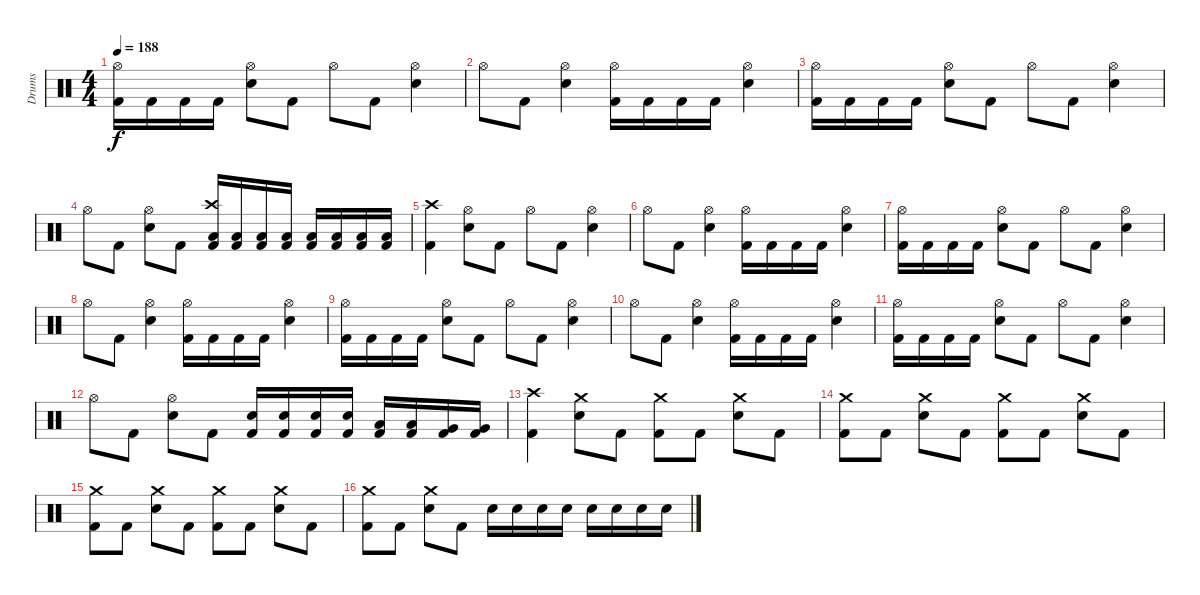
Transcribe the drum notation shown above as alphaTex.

\track ("Drums" "Drums") {instrument percussion}
\staff {score}
\articulation defaults
\ts (4 4)
\tempo 188
\clef neutral
\ks c
("Hi-Hat (open)" "Kick (hit) 2").16{dy f} "Kick (hit) 2".16 "Kick (hit) 2".16 "Kick (hit) 2".16 ("Hi-Hat (open)" "Electric Snare (hit)").8 "Kick (hit) 2".8 "Hi-Hat (open)".8 "Kick (hit) 2".8 ("Hi-Hat (open)" "Electric Snare (hit)").4 |
"Hi-Hat (open)".8 "Kick (hit) 2".8 ("Hi-Hat (open)" "Electric Snare (hit)").4 ("Hi-Hat (open)" "Kick (hit) 2").16 "Kick (hit) 2".16 "Kick (hit) 2".16 "Kick (hit) 2".16 ("Hi-Hat (open)" "Electric Snare (hit)").4 |
("Hi-Hat (open)" "Kick (hit) 2").16 "Kick (hit) 2".16 "Kick (hit) 2".16 "Kick (hit) 2".16 ("Hi-Hat (open)" "Electric Snare (hit)").8 "Kick (hit) 2".8 "Hi-Hat (open)".8 "Kick (hit) 2".8 ("Hi-Hat (open)" "Electric Snare (hit)").4 |
"Hi-Hat (open)".8 "Kick (hit) 2".8 ("Hi-Hat (open)" "Electric Snare (hit)").8 "Kick (hit) 2".8 ("Crash high (hit)" "Low Floor Tom (hit)" "Kick (hit) 2").16 ("Low Floor Tom (hit)" "Kick (hit) 2").16 ("Low Floor Tom (hit)" "Kick (hit) 2").16 ("Low Floor Tom (hit)" "Kick (hit) 2").16 ("Low Floor Tom (hit)" "Kick (hit) 2").16 ("Low Floor Tom (hit)" "Kick (hit) 2").16 ("Low Floor Tom (hit)" "Kick (hit) 2").16 ("Low Floor Tom (hit)" "Kick (hit) 2").16 |
("Crash high (hit)" "Kick (hit) 2").4 ("Hi-Hat (open)" "Electric Snare (hit)").8 "Kick (hit) 2".8 "Hi-Hat (open)".8 "Kick (hit) 2".8 ("Hi-Hat (open)" "Electric Snare (hit)").4 |
"Hi-Hat (open)".8 "Kick (hit) 2".8 ("Hi-Hat (open)" "Electric Snare (hit)").4 ("Hi-Hat (open)" "Kick (hit) 2").16 "Kick (hit) 2".16 "Kick (hit) 2".16 "Kick (hit) 2".16 ("Hi-Hat (open)" "Electric Snare (hit)").4 |
("Hi-Hat (open)" "Kick (hit) 2").16 "Kick (hit) 2".16 "Kick (hit) 2".16 "Kick (hit) 2".16 ("Hi-Hat (open)" "Electric Snare (hit)").8 "Kick (hit) 2".8 "Hi-Hat (open)".8 "Kick (hit) 2".8 ("Hi-Hat (open)" "Electric Snare (hit)").4 |
"Hi-Hat (open)".8 "Kick (hit) 2".8 ("Hi-Hat (open)" "Electric Snare (hit)").4 ("Hi-Hat (open)" "Kick (hit) 2").16 "Kick (hit) 2".16 "Kick (hit) 2".16 "Kick (hit) 2".16 ("Hi-Hat (open)" "Electric Snare (hit)").4 |
("Hi-Hat (open)" "Kick (hit) 2").16 "Kick (hit) 2".16 "Kick (hit) 2".16 "Kick (hit) 2".16 ("Hi-Hat (open)" "Electric Snare (hit)").8 "Kick (hit) 2".8 "Hi-Hat (open)".8 "Kick (hit) 2".8 ("Hi-Hat (open)" "Electric Snare (hit)").4 |
"Hi-Hat (open)".8 "Kick (hit) 2".8 ("Hi-Hat (open)" "Electric Snare (hit)").4 ("Hi-Hat (open)" "Kick (hit) 2").16 "Kick (hit) 2".16 "Kick (hit) 2".16 "Kick (hit) 2".16 ("Hi-Hat (open)" "Electric Snare (hit)").4 |
("Hi-Hat (open)" "Kick (hit) 2").16 "Kick (hit) 2".16 "Kick (hit) 2".16 "Kick (hit) 2".16 ("Hi-Hat (open)" "Electric Snare (hit)").8 "Kick (hit) 2".8 "Hi-Hat (open)".8 "Kick (hit) 2".8 ("Hi-Hat (open)" "Electric Snare (hit)").4 |
"Hi-Hat (open)".8 "Kick (hit) 2".8 ("Hi-Hat (open)" "Electric Snare (hit)").8 "Kick (hit) 2".8 ("Electric Snare (hit)" "Kick (hit) 2").16 ("Electric Snare (hit)" "Kick (hit) 2").16 ("Electric Snare (hit)" "Kick (hit) 2").16 ("Electric Snare (hit)" "Kick (hit) 2").16 ("Low Tom (hit)" "Kick (hit) 2").16 ("Low Tom (hit)" "Kick (hit) 2").16 ("Very Low Tom (hit)" "Kick (hit) 2").16 ("Very Low Tom (hit)" "Kick (hit) 2").16 |
("Crash high (hit)" "Kick (hit) 2").4 ("Crash medium (hit)" "Electric Snare (hit)").8 "Kick (hit) 2".8 ("Crash medium (hit)" "Kick (hit) 2").8 "Kick (hit) 2".8 ("Crash medium (hit)" "Electric Snare (hit)").8 "Kick (hit) 2".8 |
("Crash medium (hit)" "Kick (hit) 2").8 "Kick (hit) 2".8 ("Crash medium (hit)" "Electric Snare (hit)").8 "Kick (hit) 2".8 ("Crash medium (hit)" "Kick (hit) 2").8 "Kick (hit) 2".8 ("Crash medium (hit)" "Electric Snare (hit)").8 "Kick (hit) 2".8 |
("Crash medium (hit)" "Kick (hit) 2").8 "Kick (hit) 2".8 ("Crash medium (hit)" "Electric Snare (hit)").8 "Kick (hit) 2".8 ("Crash medium (hit)" "Kick (hit) 2").8 "Kick (hit) 2".8 ("Crash medium (hit)" "Electric Snare (hit)").8 "Kick (hit) 2".8 |
("Crash medium (hit)" "Kick (hit) 2").8 "Kick (hit) 2".8 ("Crash medium (hit)" "Electric Snare (hit)").8 "Kick (hit) 2".8 "Electric Snare (hit)".16 "Electric Snare (hit)".16 "Electric Snare (hit)".16 "Electric Snare (hit)".16 "Electric Snare (hit)".16 "Electric Snare (hit)".16 "Electric Snare (hit)".16 "Electric Snare (hit)".16
